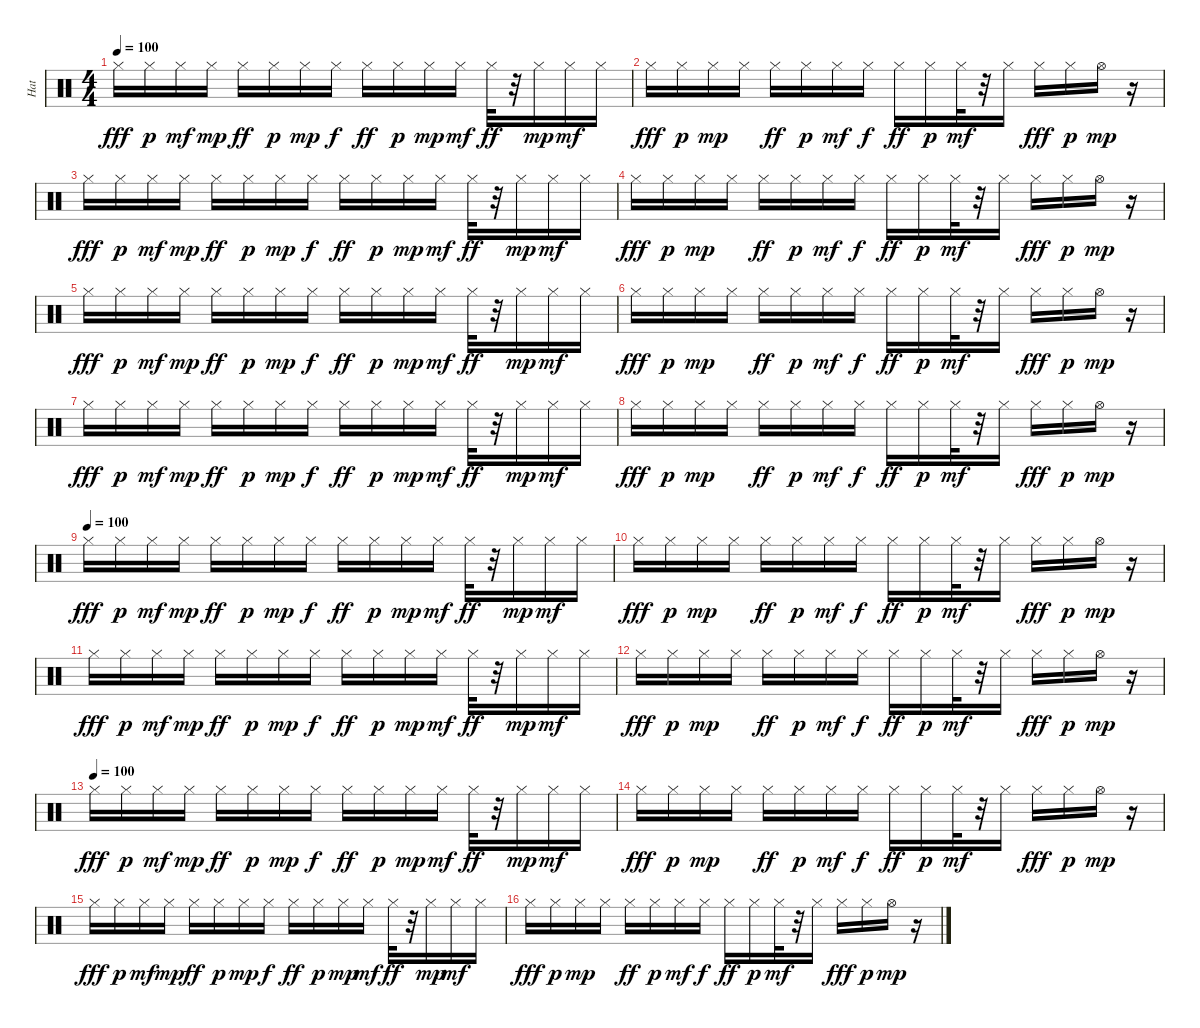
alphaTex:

\track ("Hat" "Hat") {instrument percussion}
\staff {score}
\articulation defaults
\ts (4 4)
\tempo 100
\clef neutral
\ks c "Hi-Hat (closed)".16{dy fff} "Hi-Hat (closed)".16{dy p} "Hi-Hat (closed)".16{dy mf} "Hi-Hat (closed)".16{dy mp} "Hi-Hat (closed)".16{dy ff} "Hi-Hat (closed)".16{dy p} "Hi-Hat (closed)".16{dy mp} "Hi-Hat (closed)".16{dy f} "Hi-Hat (closed)".16{dy ff} "Hi-Hat (closed)".16{dy p} "Hi-Hat (closed)".16{dy mp} "Hi-Hat (closed)".16{dy mf} "Hi-Hat (closed)".32{dy ff}
r.32 "Hi-Hat (closed)".16{dy mp} "Hi-Hat (closed)".16{dy mf} "Hi-Hat (closed)".16 |
"Hi-Hat (closed)".16{dy fff} "Hi-Hat (closed)".16{dy p} "Hi-Hat (closed)".16{dy mp} "Hi-Hat (closed)".16 "Hi-Hat (closed)".16{dy ff} "Hi-Hat (closed)".16{dy p} "Hi-Hat (closed)".16{dy mf} "Hi-Hat (closed)".16{dy f} "Hi-Hat (closed)".16{dy ff} "Hi-Hat (closed)".16{dy p} "Hi-Hat (closed)".32{dy mf} r.32 "Hi-Hat (closed)".16 "Hi-Hat (closed)".16{dy fff} "Hi-Hat (closed)".16{dy p} "Hi-Hat (open)".16{dy mp} r.16 |
"Hi-Hat (closed)".16{dy fff} "Hi-Hat (closed)".16{dy p} "Hi-Hat (closed)".16{dy mf} "Hi-Hat (closed)".16{dy mp} "Hi-Hat (closed)".16{dy ff} "Hi-Hat (closed)".16{dy p} "Hi-Hat (closed)".16{dy mp} "Hi-Hat (closed)".16{dy f} "Hi-Hat (closed)".16{dy ff} "Hi-Hat (closed)".16{dy p} "Hi-Hat (closed)".16{dy mp} "Hi-Hat (closed)".16{dy mf} "Hi-Hat (closed)".32{dy ff} r.32 "Hi-Hat (closed)".16{dy mp} "Hi-Hat (closed)".16{dy mf} "Hi-Hat (closed)".16 |
"Hi-Hat (closed)".16{dy fff} "Hi-Hat (closed)".16{dy p} "Hi-Hat (closed)".16{dy mp} "Hi-Hat (closed)".16 "Hi-Hat (closed)".16{dy ff} "Hi-Hat (closed)".16{dy p} "Hi-Hat (closed)".16{dy mf} "Hi-Hat (closed)".16{dy f} "Hi-Hat (closed)".16{dy ff} "Hi-Hat (closed)".16{dy p} "Hi-Hat (closed)".32{dy mf} r.32 "Hi-Hat (closed)".16 "Hi-Hat (closed)".16{dy fff} "Hi-Hat (closed)".16{dy p} "Hi-Hat (open)".16{dy mp} r.16 |
"Hi-Hat (closed)".16{dy fff} "Hi-Hat (closed)".16{dy p} "Hi-Hat (closed)".16{dy mf} "Hi-Hat (closed)".16{dy mp} "Hi-Hat (closed)".16{dy ff} "Hi-Hat (closed)".16{dy p} "Hi-Hat (closed)".16{dy mp} "Hi-Hat (closed)".16{dy f} "Hi-Hat (closed)".16{dy ff} "Hi-Hat (closed)".16{dy p} "Hi-Hat (closed)".16{dy mp} "Hi-Hat (closed)".16{dy mf} "Hi-Hat (closed)".32{dy ff} r.32 "Hi-Hat (closed)".16{dy mp} "Hi-Hat (closed)".16{dy mf} "Hi-Hat (closed)".16 |
"Hi-Hat (closed)".16{dy fff} "Hi-Hat (closed)".16{dy p} "Hi-Hat (closed)".16{dy mp} "Hi-Hat (closed)".16 "Hi-Hat (closed)".16{dy ff} "Hi-Hat (closed)".16{dy p} "Hi-Hat (closed)".16{dy mf} "Hi-Hat (closed)".16{dy f} "Hi-Hat (closed)".16{dy ff} "Hi-Hat (closed)".16{dy p} "Hi-Hat (closed)".32{dy mf} r.32 "Hi-Hat (closed)".16 "Hi-Hat (closed)".16{dy fff} "Hi-Hat (closed)".16{dy p} "Hi-Hat (open)".16{dy mp} r.16 |
"Hi-Hat (closed)".16{dy fff} "Hi-Hat (closed)".16{dy p} "Hi-Hat (closed)".16{dy mf} "Hi-Hat (closed)".16{dy mp} "Hi-Hat (closed)".16{dy ff} "Hi-Hat (closed)".16{dy p} "Hi-Hat (closed)".16{dy mp} "Hi-Hat (closed)".16{dy f} "Hi-Hat (closed)".16{dy ff} "Hi-Hat (closed)".16{dy p} "Hi-Hat (closed)".16{dy mp} "Hi-Hat (closed)".16{dy mf} "Hi-Hat (closed)".32{dy ff} r.32 "Hi-Hat (closed)".16{dy mp} "Hi-Hat (closed)".16{dy mf} "Hi-Hat (closed)".16 |
"Hi-Hat (closed)".16{dy fff} "Hi-Hat (closed)".16{dy p} "Hi-Hat (closed)".16{dy mp} "Hi-Hat (closed)".16 "Hi-Hat (closed)".16{dy ff} "Hi-Hat (closed)".16{dy p} "Hi-Hat (closed)".16{dy mf} "Hi-Hat (closed)".16{dy f} "Hi-Hat (closed)".16{dy ff} "Hi-Hat (closed)".16{dy p} "Hi-Hat (closed)".32{dy mf} r.32 "Hi-Hat (closed)".16 "Hi-Hat (closed)".16{dy fff} "Hi-Hat (closed)".16{dy p} "Hi-Hat (open)".16{dy mp} r.16 |
\tempo (100)
"Hi-Hat (closed)".16{dy fff} "Hi-Hat (closed)".16{dy p} "Hi-Hat (closed)".16{dy mf} "Hi-Hat (closed)".16{dy mp} "Hi-Hat (closed)".16{dy ff} "Hi-Hat (closed)".16{dy p} "Hi-Hat (closed)".16{dy mp} "Hi-Hat (closed)".16{dy f} "Hi-Hat (closed)".16{dy ff} "Hi-Hat (closed)".16{dy p} "Hi-Hat (closed)".16{dy mp} "Hi-Hat (closed)".16{dy mf} "Hi-Hat (closed)".32{dy ff} r.32 "Hi-Hat (closed)".16{dy mp} "Hi-Hat (closed)".16{dy mf} "Hi-Hat (closed)".16 |
"Hi-Hat (closed)".16{dy fff} "Hi-Hat (closed)".16{dy p} "Hi-Hat (closed)".16{dy mp} "Hi-Hat (closed)".16 "Hi-Hat (closed)".16{dy ff} "Hi-Hat (closed)".16{dy p} "Hi-Hat (closed)".16{dy mf} "Hi-Hat (closed)".16{dy f} "Hi-Hat (closed)".16{dy ff} "Hi-Hat (closed)".16{dy p} "Hi-Hat (closed)".32{dy mf} r.32 "Hi-Hat (closed)".16 "Hi-Hat (closed)".16{dy fff} "Hi-Hat (closed)".16{dy p} "Hi-Hat (open)".16{dy mp} r.16 |
"Hi-Hat (closed)".16{dy fff} "Hi-Hat (closed)".16{dy p} "Hi-Hat (closed)".16{dy mf} "Hi-Hat (closed)".16{dy mp} "Hi-Hat (closed)".16{dy ff} "Hi-Hat (closed)".16{dy p} "Hi-Hat (closed)".16{dy mp} "Hi-Hat (closed)".16{dy f} "Hi-Hat (closed)".16{dy ff} "Hi-Hat (closed)".16{dy p} "Hi-Hat (closed)".16{dy mp} "Hi-Hat (closed)".16{dy mf} "Hi-Hat (closed)".32{dy ff} r.32 "Hi-Hat (closed)".16{dy mp} "Hi-Hat (closed)".16{dy mf} "Hi-Hat (closed)".16 |
"Hi-Hat (closed)".16{dy fff} "Hi-Hat (closed)".16{dy p} "Hi-Hat (closed)".16{dy mp} "Hi-Hat (closed)".16 "Hi-Hat (closed)".16{dy ff} "Hi-Hat (closed)".16{dy p} "Hi-Hat (closed)".16{dy mf} "Hi-Hat (closed)".16{dy f} "Hi-Hat (closed)".16{dy ff} "Hi-Hat (closed)".16{dy p} "Hi-Hat (closed)".32{dy mf} r.32 "Hi-Hat (closed)".16 "Hi-Hat (closed)".16{dy fff} "Hi-Hat (closed)".16{dy p} "Hi-Hat (open)".16{dy mp} r.16 |
\tempo (100)
"Hi-Hat (closed)".16{dy fff} "Hi-Hat (closed)".16{dy p} "Hi-Hat (closed)".16{dy mf} "Hi-Hat (closed)".16{dy mp} "Hi-Hat (closed)".16{dy ff} "Hi-Hat (closed)".16{dy p} "Hi-Hat (closed)".16{dy mp} "Hi-Hat (closed)".16{dy f} "Hi-Hat (closed)".16{dy ff} "Hi-Hat (closed)".16{dy p} "Hi-Hat (closed)".16{dy mp} "Hi-Hat (closed)".16{dy mf} "Hi-Hat (closed)".32{dy ff} r.32 "Hi-Hat (closed)".16{dy mp} "Hi-Hat (closed)".16{dy mf} "Hi-Hat (closed)".16 |
"Hi-Hat (closed)".16{dy fff} "Hi-Hat (closed)".16{dy p} "Hi-Hat (closed)".16{dy mp} "Hi-Hat (closed)".16 "Hi-Hat (closed)".16{dy ff} "Hi-Hat (closed)".16{dy p} "Hi-Hat (closed)".16{dy mf} "Hi-Hat (closed)".16{dy f} "Hi-Hat (closed)".16{dy ff} "Hi-Hat (closed)".16{dy p} "Hi-Hat (closed)".32{dy mf} r.32 "Hi-Hat (closed)".16 "Hi-Hat (closed)".16{dy fff} "Hi-Hat (closed)".16{dy p} "Hi-Hat (open)".16{dy mp} r.16 |
"Hi-Hat (closed)".16{dy fff} "Hi-Hat (closed)".16{dy p} "Hi-Hat (closed)".16{dy mf} "Hi-Hat (closed)".16{dy mp} "Hi-Hat (closed)".16{dy ff} "Hi-Hat (closed)".16{dy p} "Hi-Hat (closed)".16{dy mp} "Hi-Hat (closed)".16{dy f} "Hi-Hat (closed)".16{dy ff} "Hi-Hat (closed)".16{dy p} "Hi-Hat (closed)".16{dy mp} "Hi-Hat (closed)".16{dy mf} "Hi-Hat (closed)".32{dy ff} r.32 "Hi-Hat (closed)".16{dy mp} "Hi-Hat (closed)".16{dy mf} "Hi-Hat (closed)".16 |
"Hi-Hat (closed)".16{dy fff} "Hi-Hat (closed)".16{dy p} "Hi-Hat (closed)".16{dy mp} "Hi-Hat (closed)".16 "Hi-Hat (closed)".16{dy ff} "Hi-Hat (closed)".16{dy p} "Hi-Hat (closed)".16{dy mf} "Hi-Hat (closed)".16{dy f} "Hi-Hat (closed)".16{dy ff} "Hi-Hat (closed)".16{dy p} "Hi-Hat (closed)".32{dy mf} r.32 "Hi-Hat (closed)".16 "Hi-Hat (closed)".16{dy fff} "Hi-Hat (closed)".16{dy p} "Hi-Hat (open)".16{dy mp} r.16
